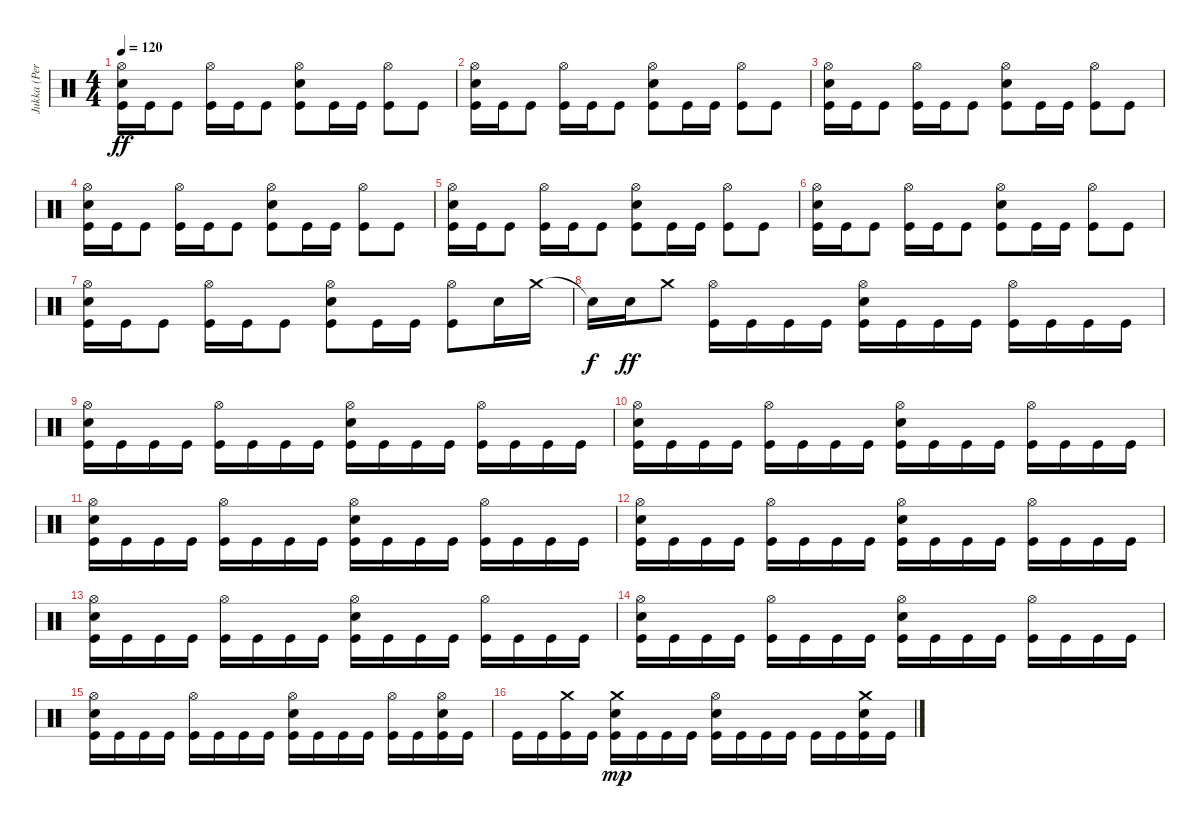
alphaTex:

\track ("Jukka (Percussion)" "Jukka (Per") {instrument percussion}
\staff {score}
\articulation defaults
\ts (4 4)
\tempo 120
\clef neutral
\ks c
("Kick (hit)" "Electric Snare (hit)" "Hi-Hat (open)").16{dy ff} "Kick (hit)".16 "Kick (hit)".8 ("Kick (hit)" "Hi-Hat (open)").16 "Kick (hit)".16 "Kick (hit)".8 ("Kick (hit)" "Electric Snare (hit)" "Hi-Hat (open)").8 "Kick (hit)".16 "Kick (hit)".16 ("Kick (hit)" "Hi-Hat (open)").8 "Kick (hit)".8 |
("Kick (hit)" "Electric Snare (hit)" "Hi-Hat (open)").16 "Kick (hit)".16 "Kick (hit)".8 ("Kick (hit)" "Hi-Hat (open)").16 "Kick (hit)".16 "Kick (hit)".8 ("Kick (hit)" "Electric Snare (hit)" "Hi-Hat (open)").8 "Kick (hit)".16 "Kick (hit)".16 ("Kick (hit)" "Hi-Hat (open)").8 "Kick (hit)".8 |
("Kick (hit)" "Electric Snare (hit)" "Hi-Hat (open)").16 "Kick (hit)".16 "Kick (hit)".8 ("Kick (hit)" "Hi-Hat (open)").16 "Kick (hit)".16 "Kick (hit)".8 ("Kick (hit)" "Electric Snare (hit)" "Hi-Hat (open)").8 "Kick (hit)".16 "Kick (hit)".16 ("Kick (hit)" "Hi-Hat (open)").8 "Kick (hit)".8 |
("Kick (hit)" "Electric Snare (hit)" "Hi-Hat (open)").16 "Kick (hit)".16 "Kick (hit)".8 ("Kick (hit)" "Hi-Hat (open)").16 "Kick (hit)".16 "Kick (hit)".8 ("Kick (hit)" "Electric Snare (hit)" "Hi-Hat (open)").8 "Kick (hit)".16 "Kick (hit)".16 ("Kick (hit)" "Hi-Hat (open)").8 "Kick (hit)".8 |
("Kick (hit)" "Electric Snare (hit)" "Hi-Hat (open)").16 "Kick (hit)".16 "Kick (hit)".8 ("Kick (hit)" "Hi-Hat (open)").16 "Kick (hit)".16 "Kick (hit)".8 ("Kick (hit)" "Electric Snare (hit)" "Hi-Hat (open)").8 "Kick (hit)".16 "Kick (hit)".16 ("Kick (hit)" "Hi-Hat (open)").8 "Kick (hit)".8 |
("Kick (hit)" "Electric Snare (hit)" "Hi-Hat (open)").16 "Kick (hit)".16 "Kick (hit)".8 ("Kick (hit)" "Hi-Hat (open)").16 "Kick (hit)".16 "Kick (hit)".8 ("Kick (hit)" "Electric Snare (hit)" "Hi-Hat (open)").8 "Kick (hit)".16 "Kick (hit)".16 ("Kick (hit)" "Hi-Hat (open)").8 "Kick (hit)".8 |
("Kick (hit)" "Electric Snare (hit)" "Hi-Hat (open)").16 "Kick (hit)".16 "Kick (hit)".8 ("Kick (hit)" "Hi-Hat (open)").16 "Kick (hit)".16 "Kick (hit)".8 ("Kick (hit)" "Electric Snare (hit)" "Hi-Hat (open)").8 "Kick (hit)".16 "Kick (hit)".16 ("Kick (hit)" "Hi-Hat (open)").8 "Electric Snare (hit)".16 "Crash medium (hit)".16 |
"Snare (hit)"{t}.16{dy f} "Electric Snare (hit)".16{dy ff} "Crash medium (hit)".8 ("Kick (hit)" "Hi-Hat (open)").16 "Kick (hit)".16 "Kick (hit)".16 "Kick (hit)".16 ("Kick (hit)" "Electric Snare (hit)" "Hi-Hat (open)").16 "Kick (hit)".16 "Kick (hit)".16 "Kick (hit)".16 ("Kick (hit)" "Hi-Hat (open)").16 "Kick (hit)".16 "Kick (hit)".16 "Kick (hit)".16 |
("Kick (hit)" "Electric Snare (hit)" "Hi-Hat (open)").16 "Kick (hit)".16 "Kick (hit)".16 "Kick (hit)".16 ("Kick (hit)" "Hi-Hat (open)").16 "Kick (hit)".16 "Kick (hit)".16 "Kick (hit)".16 ("Kick (hit)" "Electric Snare (hit)" "Hi-Hat (open)").16 "Kick (hit)".16 "Kick (hit)".16 "Kick (hit)".16 ("Kick (hit)" "Hi-Hat (open)").16 "Kick (hit)".16 "Kick (hit)".16 "Kick (hit)".16 |
("Kick (hit)" "Electric Snare (hit)" "Hi-Hat (open)").16 "Kick (hit)".16 "Kick (hit)".16 "Kick (hit)".16 ("Kick (hit)" "Hi-Hat (open)").16 "Kick (hit)".16 "Kick (hit)".16 "Kick (hit)".16 ("Kick (hit)" "Electric Snare (hit)" "Hi-Hat (open)").16 "Kick (hit)".16 "Kick (hit)".16 "Kick (hit)".16 ("Kick (hit)" "Hi-Hat (open)").16 "Kick (hit)".16 "Kick (hit)".16 "Kick (hit)".16 |
("Kick (hit)" "Electric Snare (hit)" "Hi-Hat (open)").16 "Kick (hit)".16 "Kick (hit)".16 "Kick (hit)".16 ("Kick (hit)" "Hi-Hat (open)").16 "Kick (hit)".16 "Kick (hit)".16 "Kick (hit)".16 ("Kick (hit)" "Electric Snare (hit)" "Hi-Hat (open)").16 "Kick (hit)".16 "Kick (hit)".16 "Kick (hit)".16 ("Kick (hit)" "Hi-Hat (open)").16 "Kick (hit)".16 "Kick (hit)".16 "Kick (hit)".16 |
("Kick (hit)" "Electric Snare (hit)" "Hi-Hat (open)").16 "Kick (hit)".16 "Kick (hit)".16 "Kick (hit)".16 ("Kick (hit)" "Hi-Hat (open)").16 "Kick (hit)".16 "Kick (hit)".16 "Kick (hit)".16 ("Kick (hit)" "Electric Snare (hit)" "Hi-Hat (open)").16 "Kick (hit)".16 "Kick (hit)".16 "Kick (hit)".16 ("Kick (hit)" "Hi-Hat (open)").16 "Kick (hit)".16 "Kick (hit)".16 "Kick (hit)".16 |
("Kick (hit)" "Electric Snare (hit)" "Hi-Hat (open)").16 "Kick (hit)".16 "Kick (hit)".16 "Kick (hit)".16 ("Kick (hit)" "Hi-Hat (open)").16 "Kick (hit)".16 "Kick (hit)".16 "Kick (hit)".16 ("Kick (hit)" "Electric Snare (hit)" "Hi-Hat (open)").16 "Kick (hit)".16 "Kick (hit)".16 "Kick (hit)".16 ("Kick (hit)" "Hi-Hat (open)").16 "Kick (hit)".16 "Kick (hit)".16 "Kick (hit)".16 |
("Kick (hit)" "Electric Snare (hit)" "Hi-Hat (open)").16 "Kick (hit)".16 "Kick (hit)".16 "Kick (hit)".16 ("Kick (hit)" "Hi-Hat (open)").16 "Kick (hit)".16 "Kick (hit)".16 "Kick (hit)".16 ("Kick (hit)" "Electric Snare (hit)" "Hi-Hat (open)").16 "Kick (hit)".16 "Kick (hit)".16 "Kick (hit)".16 ("Kick (hit)" "Hi-Hat (open)").16 "Kick (hit)".16 "Kick (hit)".16 "Kick (hit)".16 |
("Kick (hit)" "Electric Snare (hit)" "Hi-Hat (open)").16 "Kick (hit)".16 "Kick (hit)".16 "Kick (hit)".16 ("Kick (hit)" "Hi-Hat (open)").16 "Kick (hit)".16 "Kick (hit)".16 "Kick (hit)".16 ("Kick (hit)" "Electric Snare (hit)" "Hi-Hat (open)").16 "Kick (hit)".16 "Kick (hit)".16 "Kick (hit)".16 ("Kick (hit)" "Hi-Hat (open)").16 "Kick (hit)".16 ("Kick (hit)" "Electric Snare (hit)" "Hi-Hat (open)").16 "Kick (hit)".16 |
"Kick (hit)".16 "Kick (hit)".16 ("Kick (hit)" "Crash medium (hit)").16 "Kick (hit)".16 ("Kick (hit)" "Electric Snare (hit)" "Crash medium (hit)").16{dy mp} "Kick (hit)".16 "Kick (hit)".16 "Kick (hit)".16 ("Kick (hit)" "Electric Snare (hit)" "Hi-Hat (open)").16 "Kick (hit)".16 "Kick (hit)".16 "Kick (hit)".16 "Kick (hit)".16 "Kick (hit)".16 ("Kick (hit)" "Electric Snare (hit)" "Crash medium (hit)").16 "Kick (hit)".16
